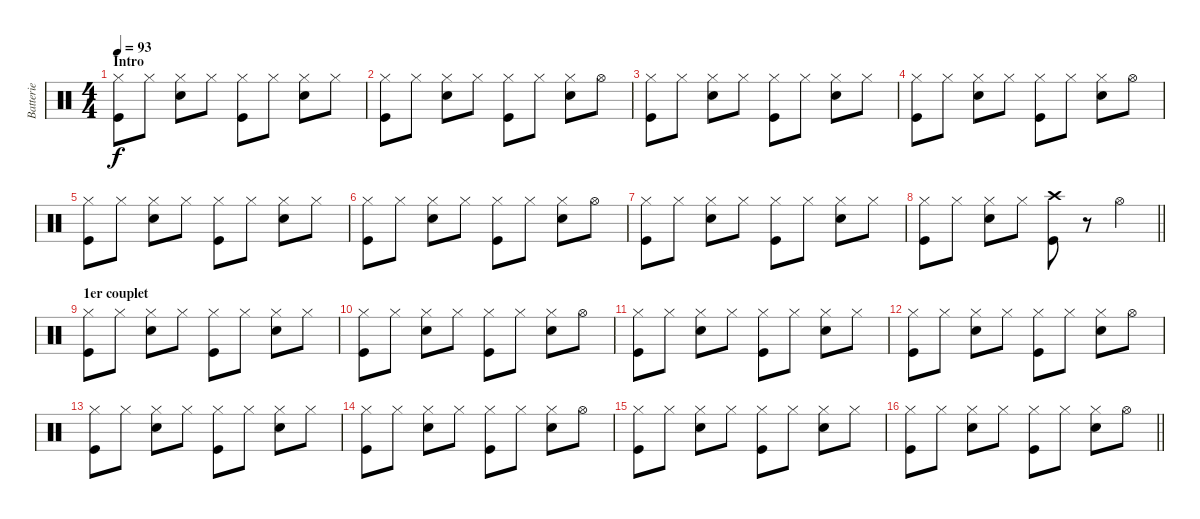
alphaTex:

\track ("Batterie" "Batterie") {instrument percussion}
\staff {score}
\articulation defaults
\ts (4 4)
\section ("" "Intro")
\tempo 93
\clef neutral
\ks c
("Hi-Hat (closed)" "Kick (hit)").8{dy f} "Hi-Hat (closed)".8 ("Hi-Hat (closed)" "Snare (hit) 2").8 "Hi-Hat (closed)".8 ("Hi-Hat (closed)" "Kick (hit)").8 "Hi-Hat (closed)".8 ("Hi-Hat (closed)" "Snare (hit) 2").8 "Hi-Hat (closed)".8 |
("Hi-Hat (closed)" "Kick (hit)").8 "Hi-Hat (closed)".8 ("Hi-Hat (closed)" "Snare (hit) 2").8 "Hi-Hat (closed)".8 ("Hi-Hat (closed)" "Kick (hit)").8 "Hi-Hat (closed)".8 ("Hi-Hat (closed)" "Snare (hit) 2").8 "Hi-Hat (open)".8 |
("Hi-Hat (closed)" "Kick (hit)").8 "Hi-Hat (closed)".8 ("Hi-Hat (closed)" "Snare (hit) 2").8 "Hi-Hat (closed)".8 ("Hi-Hat (closed)" "Kick (hit)").8 "Hi-Hat (closed)".8 ("Hi-Hat (closed)" "Snare (hit) 2").8 "Hi-Hat (closed)".8 |
("Hi-Hat (closed)" "Kick (hit)").8 "Hi-Hat (closed)".8 ("Hi-Hat (closed)" "Snare (hit) 2").8 "Hi-Hat (closed)".8 ("Hi-Hat (closed)" "Kick (hit)").8 "Hi-Hat (closed)".8 ("Hi-Hat (closed)" "Snare (hit) 2").8 "Hi-Hat (open)".8 |
("Hi-Hat (closed)" "Kick (hit)").8 "Hi-Hat (closed)".8 ("Hi-Hat (closed)" "Snare (hit) 2").8 "Hi-Hat (closed)".8 ("Hi-Hat (closed)" "Kick (hit)").8 "Hi-Hat (closed)".8 ("Hi-Hat (closed)" "Snare (hit) 2").8 "Hi-Hat (closed)".8 |
("Hi-Hat (closed)" "Kick (hit)").8 "Hi-Hat (closed)".8 ("Hi-Hat (closed)" "Snare (hit) 2").8 "Hi-Hat (closed)".8 ("Hi-Hat (closed)" "Kick (hit)").8 "Hi-Hat (closed)".8 ("Hi-Hat (closed)" "Snare (hit) 2").8 "Hi-Hat (open)".8 |
("Hi-Hat (closed)" "Kick (hit)").8 "Hi-Hat (closed)".8 ("Hi-Hat (closed)" "Snare (hit) 2").8 "Hi-Hat (closed)".8 ("Hi-Hat (closed)" "Kick (hit)").8 "Hi-Hat (closed)".8 ("Hi-Hat (closed)" "Snare (hit) 2").8 "Hi-Hat (closed)".8 |
\barLineRight lightlight
("Hi-Hat (closed)" "Kick (hit)").8 "Hi-Hat (closed)".8 ("Hi-Hat (closed)" "Snare (hit) 2").8 "Hi-Hat (closed)".8 ("Crash high (hit)" "Kick (hit)").8 r.8 "Hi-Hat (open)".4 |
\section ("" "1er couplet")
("Hi-Hat (closed)" "Kick (hit)").8 "Hi-Hat (closed)".8 ("Hi-Hat (closed)" "Snare (hit) 2").8 "Hi-Hat (closed)".8 ("Hi-Hat (closed)" "Kick (hit)").8 "Hi-Hat (closed)".8 ("Hi-Hat (closed)" "Snare (hit) 2").8 "Hi-Hat (closed)".8 |
("Hi-Hat (closed)" "Kick (hit)").8 "Hi-Hat (closed)".8 ("Hi-Hat (closed)" "Snare (hit) 2").8 "Hi-Hat (closed)".8 ("Hi-Hat (closed)" "Kick (hit)").8 "Hi-Hat (closed)".8 ("Hi-Hat (closed)" "Snare (hit) 2").8 "Hi-Hat (open)".8 |
("Hi-Hat (closed)" "Kick (hit)").8 "Hi-Hat (closed)".8 ("Hi-Hat (closed)" "Snare (hit) 2").8 "Hi-Hat (closed)".8 ("Hi-Hat (closed)" "Kick (hit)").8 "Hi-Hat (closed)".8 ("Hi-Hat (closed)" "Snare (hit) 2").8 "Hi-Hat (closed)".8 |
("Hi-Hat (closed)" "Kick (hit)").8 "Hi-Hat (closed)".8 ("Hi-Hat (closed)" "Snare (hit) 2").8 "Hi-Hat (closed)".8 ("Hi-Hat (closed)" "Kick (hit)").8 "Hi-Hat (closed)".8 ("Hi-Hat (closed)" "Snare (hit) 2").8 "Hi-Hat (open)".8 |
("Hi-Hat (closed)" "Kick (hit)").8 "Hi-Hat (closed)".8 ("Hi-Hat (closed)" "Snare (hit) 2").8 "Hi-Hat (closed)".8 ("Hi-Hat (closed)" "Kick (hit)").8 "Hi-Hat (closed)".8 ("Hi-Hat (closed)" "Snare (hit) 2").8 "Hi-Hat (closed)".8 |
("Hi-Hat (closed)" "Kick (hit)").8 "Hi-Hat (closed)".8 ("Hi-Hat (closed)" "Snare (hit) 2").8 "Hi-Hat (closed)".8 ("Hi-Hat (closed)" "Kick (hit)").8 "Hi-Hat (closed)".8 ("Hi-Hat (closed)" "Snare (hit) 2").8 "Hi-Hat (open)".8 |
("Hi-Hat (closed)" "Kick (hit)").8 "Hi-Hat (closed)".8 ("Hi-Hat (closed)" "Snare (hit) 2").8 "Hi-Hat (closed)".8 ("Hi-Hat (closed)" "Kick (hit)").8 "Hi-Hat (closed)".8 ("Hi-Hat (closed)" "Snare (hit) 2").8 "Hi-Hat (closed)".8 |
\barLineRight lightlight
("Hi-Hat (closed)" "Kick (hit)").8 "Hi-Hat (closed)".8 ("Hi-Hat (closed)" "Snare (hit) 2").8 "Hi-Hat (closed)".8 ("Hi-Hat (closed)" "Kick (hit)").8 "Hi-Hat (closed)".8 ("Hi-Hat (closed)" "Snare (hit) 2").8 "Hi-Hat (open)".8
